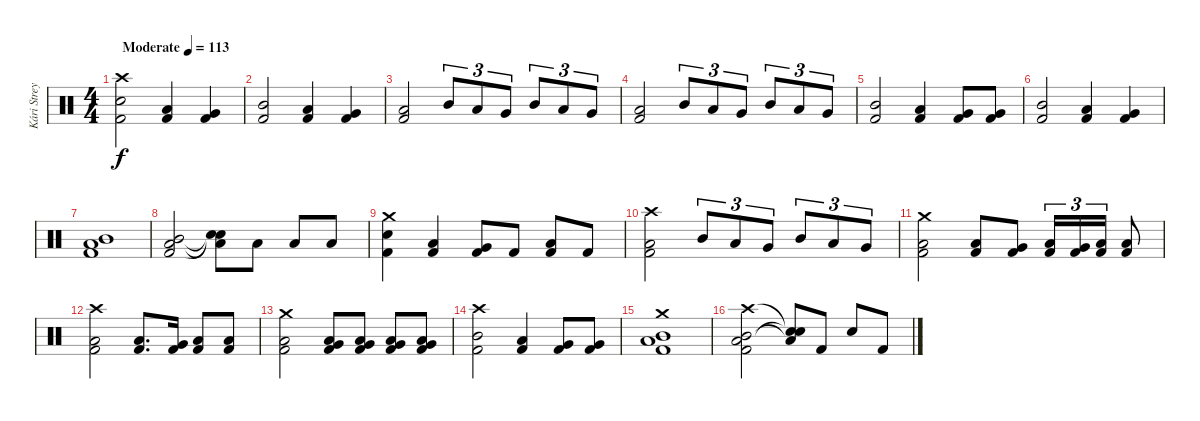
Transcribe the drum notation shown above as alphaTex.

\track ("Kári Streymoy" "Kári Strey") {instrument percussion}
\staff {score}
\articulation defaults
\ts (4 4)
\tempo (113 "Moderate")
\clef neutral
\ks c
("Crash high (hit)" "Snare (hit) 2" "Kick (hit) 2").2{dy f} ("Low Tom (hit)" "Kick (hit) 2").4 ("Very Low Tom (hit)" "Kick (hit) 2").4 |
("Mid Tom (hit)" "Kick (hit) 2").2 ("Low Tom (hit)" "Kick (hit) 2").4 ("Very Low Tom (hit)" "Kick (hit) 2").4 |
("Low Tom (hit)" "Kick (hit) 2").2 "Mid Tom (hit)".8{tu (3 2)} "Low Tom (hit)".8{tu (3 2)} "Very Low Tom (hit)".8{tu (3 2)} "Mid Tom (hit)".8{tu (3 2)} "Low Tom (hit)".8{tu (3 2)} "Very Low Tom (hit)".8{tu (3 2)} |
("Low Tom (hit)" "Kick (hit) 2").2 "Mid Tom (hit)".8{tu (3 2)} "Low Tom (hit)".8{tu (3 2)} "Very Low Tom (hit)".8{tu (3 2)} "Mid Tom (hit)".8{tu (3 2)} "Low Tom (hit)".8{tu (3 2)} "Very Low Tom (hit)".8{tu (3 2)} |
("Mid Tom (hit)" "Kick (hit) 2").2 ("Low Tom (hit)" "Kick (hit) 2").4 ("Very Low Tom (hit)" "Kick (hit) 2").8 ("Very Low Tom (hit)" "Kick (hit) 2").8 |
("Mid Tom (hit)" "Kick (hit) 2").2 ("Low Tom (hit)" "Kick (hit) 2").4 ("Very Low Tom (hit)" "Kick (hit) 2").4 |
("Mid Tom (hit)" "Low Tom (hit)" "Kick (hit) 2").1 |
("Mid Tom (hit)" "Low Tom (hit)" "Kick (hit) 2").2 ("Snare (hit)"{t} "Low Tom (hit)"{t} "Snare (hit)"{t}).8 "Low Tom (hit)".8 "Low Tom (hit)".8 "Low Tom (hit)".8 |
("Crash medium (hit)" "Snare (hit) 2" "Kick (hit) 2").4 ("Low Tom (hit)" "Kick (hit) 2").4 ("Very Low Tom (hit)" "Kick (hit) 2").8 "Kick (hit) 2".8 ("Low Floor Tom (hit)" "Kick (hit) 2").8 "Kick (hit) 2".8 |
("Crash high (hit)" "Low Tom (hit)" "Kick (hit) 2").2 "Mid Tom (hit)".8{tu (3 2)} "Low Tom (hit)".8{tu (3 2)} "Very Low Tom (hit)".8{tu (3 2)} "Mid Tom (hit)".8{tu (3 2)} "Low Tom (hit)".8{tu (3 2)} "Very Low Tom (hit)".8{tu (3 2)} |
("Crash medium (hit)" "Low Tom (hit)" "Kick (hit) 2").2 ("Low Tom (hit)" "Kick (hit) 2").8 ("Very Low Tom (hit)" "Kick (hit) 2").8 ("Low Tom (hit)" "Kick (hit) 2").16{tu (3 2)} ("Very Low Tom (hit)" "Kick (hit) 2").16{tu (3 2)} ("Low Floor Tom (hit)" "Kick (hit) 2").16{tu (3 2)} ("Low Tom (hit)" "Kick (hit) 2").8 |
("Crash high (hit)" "Low Tom (hit)" "Kick (hit) 2").2 ("Low Tom (hit)" "Kick (hit) 2").8{d} ("Very Low Tom (hit)" "Kick (hit) 2").16 ("Low Floor Tom (hit)" "Kick (hit) 2").8 ("Low Floor Tom (hit)" "Kick (hit) 2").8 |
("Crash medium (hit)" "Low Tom (hit)" "Kick (hit) 2").2 ("Low Tom (hit)" "Very Low Tom (hit)" "Kick (hit) 2").8 ("Low Tom (hit)" "Very Low Tom (hit)" "Kick (hit) 2").8 ("Low Tom (hit)" "Very Low Tom (hit)" "Kick (hit) 2").8 ("Low Tom (hit)" "Very Low Tom (hit)" "Kick (hit) 2").8 |
("Crash high (hit)" "Mid Tom (hit)" "Kick (hit) 2").2 ("Low Tom (hit)" "Kick (hit) 2").4 ("Very Low Tom (hit)" "Kick (hit) 2").8 ("Very Low Tom (hit)" "Kick (hit) 2").8 |
("Crash medium (hit)" "Mid Tom (hit)" "Low Tom (hit)" "Kick (hit) 2").1 |
("Crash high (hit)" "Mid Tom (hit)" "Low Tom (hit)" "Kick (hit) 2").2 ("Snare (hit)"{t} "Low Tom (hit)"{t} "Snare (hit)"{t}).8 "Kick (hit) 2".8 "Snare (hit) 2".8 "Kick (hit) 2".8
